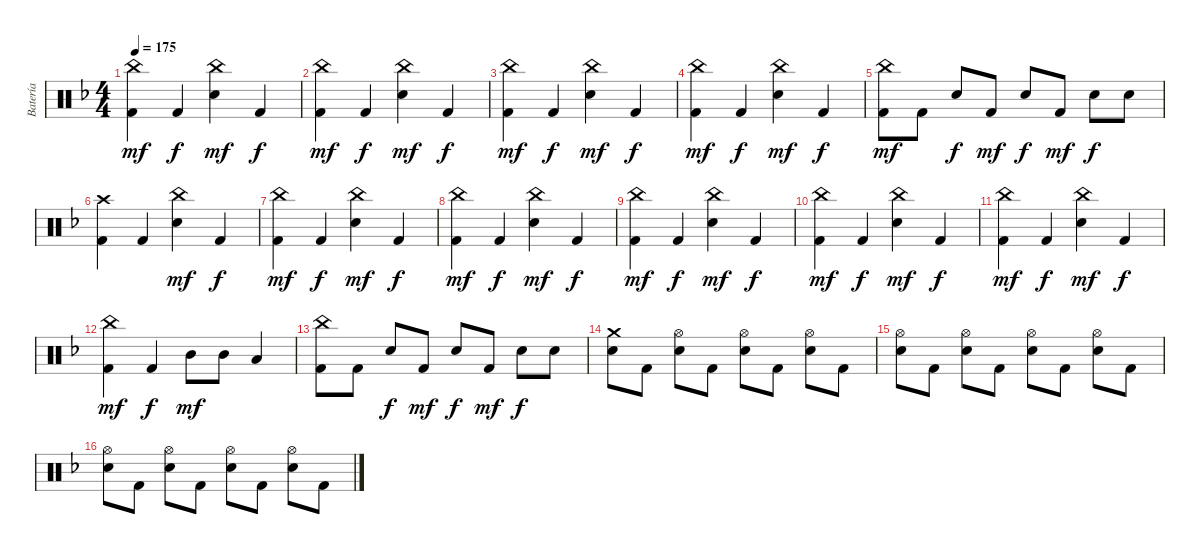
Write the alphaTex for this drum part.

\track ("Batería" "Batería") {instrument percussion}
\staff {score}
\articulation defaults
\ts (4 4)
\tempo 175
\clef neutral
\ks dminor
("China (hit)" "Kick (hit) 2").4{dy mf} "Kick (hit) 2".4{dy f} ("China (hit)" "Snare (hit) 2").4{dy mf} "Kick (hit) 2".4{dy f} |
("China (hit)" "Kick (hit) 2").4{dy mf} "Kick (hit) 2".4{dy f} ("China (hit)" "Snare (hit) 2").4{dy mf} "Kick (hit) 2".4{dy f} |
("China (hit)" "Kick (hit) 2").4{dy mf} "Kick (hit) 2".4{dy f} ("China (hit)" "Snare (hit) 2").4{dy mf} "Kick (hit) 2".4{dy f} |
("China (hit)" "Kick (hit) 2").4{dy mf} "Kick (hit) 2".4{dy f} ("China (hit)" "Snare (hit) 2").4{dy mf} "Kick (hit) 2".4{dy f} |
("China (hit)" "Kick (hit) 2").8{dy mf} "Kick (hit) 2".8 "Snare (hit) 2".8{dy f} "Kick (hit) 2".8{dy mf} "Snare (hit) 2".8{dy f} "Kick (hit) 2".8{dy mf} "Snare (hit) 2".8{dy f} "Snare (hit) 2".8 |
("Crash high (hit)" "Kick (hit) 2").4 "Kick (hit) 2".4 ("China (hit)" "Snare (hit) 2").4{dy mf} "Kick (hit) 2".4{dy f} |
("China (hit)" "Kick (hit) 2").4{dy mf} "Kick (hit) 2".4{dy f} ("China (hit)" "Snare (hit) 2").4{dy mf} "Kick (hit) 2".4{dy f} |
("China (hit)" "Kick (hit) 2").4{dy mf} "Kick (hit) 2".4{dy f} ("China (hit)" "Snare (hit) 2").4{dy mf} "Kick (hit) 2".4{dy f} |
("China (hit)" "Kick (hit) 2").4{dy mf} "Kick (hit) 2".4{dy f} ("China (hit)" "Snare (hit) 2").4{dy mf} "Kick (hit) 2".4{dy f} |
("China (hit)" "Kick (hit) 2").4{dy mf} "Kick (hit) 2".4{dy f} ("China (hit)" "Snare (hit) 2").4{dy mf} "Kick (hit) 2".4{dy f} |
("China (hit)" "Kick (hit) 2").4{dy mf} "Kick (hit) 2".4{dy f} ("China (hit)" "Snare (hit) 2").4{dy mf} "Kick (hit) 2".4{dy f} |
("China (hit)" "Kick (hit) 2").4{dy mf} "Kick (hit) 2".4{dy f} "Mid Tom (hit)".8{dy mf} "Mid Tom (hit)".8 "Low Tom (hit)".4 |
("China (hit)" "Kick (hit) 2").8 "Kick (hit) 2".8 "Snare (hit) 2".8{dy f} "Kick (hit) 2".8{dy mf} "Snare (hit) 2".8{dy f} "Kick (hit) 2".8{dy mf} "Snare (hit) 2".8{dy f} "Snare (hit) 2".8 |
("Crash medium (hit)" "Snare (hit) 2").8 "Kick (hit) 2".8 ("Hi-Hat (open)" "Snare (hit) 2").8 "Kick (hit) 2".8 ("Hi-Hat (open)" "Snare (hit) 2").8 "Kick (hit) 2".8 ("Hi-Hat (open)" "Snare (hit) 2").8 "Kick (hit) 2".8 |
("Hi-Hat (open)" "Snare (hit) 2").8 "Kick (hit) 2".8 ("Hi-Hat (open)" "Snare (hit) 2").8 "Kick (hit) 2".8 ("Hi-Hat (open)" "Snare (hit) 2").8 "Kick (hit) 2".8 ("Hi-Hat (open)" "Snare (hit) 2").8 "Kick (hit) 2".8 |
("Hi-Hat (open)" "Snare (hit) 2").8 "Kick (hit) 2".8 ("Hi-Hat (open)" "Snare (hit) 2").8 "Kick (hit) 2".8 ("Hi-Hat (open)" "Snare (hit) 2").8 "Kick (hit) 2".8 ("Hi-Hat (open)" "Snare (hit) 2").8 "Kick (hit) 2".8
